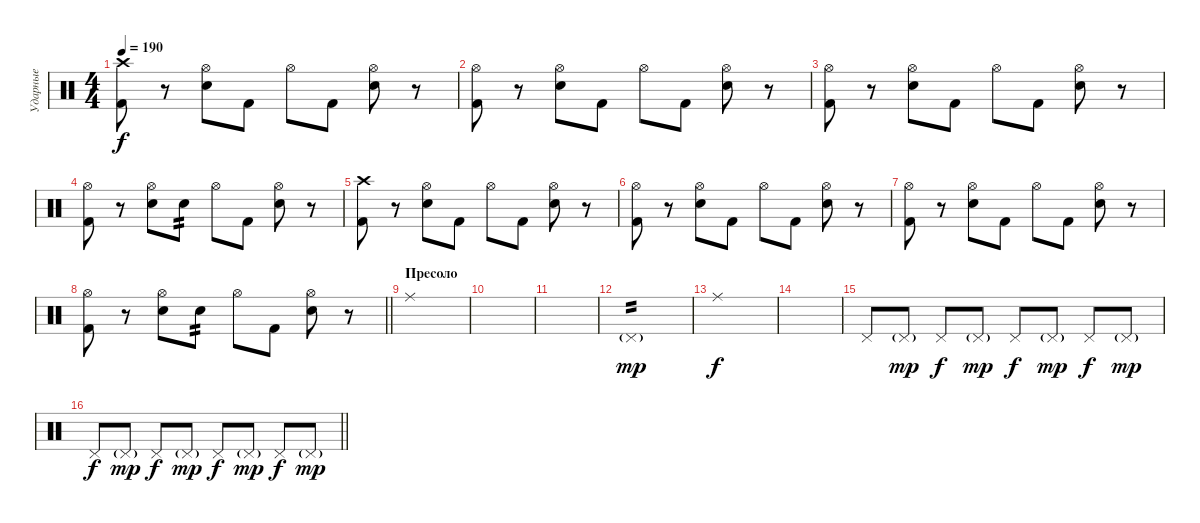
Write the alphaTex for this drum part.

\track ("Ударные" "Ударные") {instrument percussion}
\staff {score}
\articulation defaults
\ts (4 4)
\tempo 190
\clef neutral
\ks c
("Crash high (hit)" "Kick (hit) 2").8{dy f} r.8 ("Hi-Hat (open)" "Electric Snare (hit)").8 "Kick (hit) 2".8 "Hi-Hat (open)".8 "Kick (hit) 2".8 ("Hi-Hat (open)" "Electric Snare (hit)").8 r.8 |
("Hi-Hat (open)" "Kick (hit) 2").8 r.8 ("Hi-Hat (open)" "Electric Snare (hit)").8 "Kick (hit) 2".8 "Hi-Hat (open)".8 "Kick (hit) 2".8 ("Hi-Hat (open)" "Electric Snare (hit)").8 r.8 |
("Hi-Hat (open)" "Kick (hit) 2").8 r.8 ("Hi-Hat (open)" "Electric Snare (hit)").8 "Kick (hit) 2".8 "Hi-Hat (open)".8 "Kick (hit) 2".8 ("Hi-Hat (open)" "Electric Snare (hit)").8 r.8 |
("Hi-Hat (open)" "Kick (hit) 2").8 r.8 ("Hi-Hat (open)" "Electric Snare (hit)").8 "Electric Snare (hit)".8{tp 2} "Hi-Hat (open)".8 "Kick (hit) 2".8 ("Hi-Hat (open)" "Electric Snare (hit)").8 r.8 |
("Crash high (hit)" "Kick (hit) 2").8 r.8 ("Hi-Hat (open)" "Electric Snare (hit)").8 "Kick (hit) 2".8 "Hi-Hat (open)".8 "Kick (hit) 2".8 ("Hi-Hat (open)" "Electric Snare (hit)").8 r.8 |
("Hi-Hat (open)" "Kick (hit) 2").8 r.8 ("Hi-Hat (open)" "Electric Snare (hit)").8 "Kick (hit) 2".8 "Hi-Hat (open)".8 "Kick (hit) 2".8 ("Hi-Hat (open)" "Electric Snare (hit)").8 r.8 |
("Hi-Hat (open)" "Kick (hit) 2").8 r.8 ("Hi-Hat (open)" "Electric Snare (hit)").8 "Kick (hit) 2".8 "Hi-Hat (open)".8 "Kick (hit) 2".8 ("Hi-Hat (open)" "Electric Snare (hit)").8 r.8 |
\barLineRight lightlight
("Hi-Hat (open)" "Kick (hit) 2").8 r.8 ("Hi-Hat (open)" "Electric Snare (hit)").8 "Electric Snare (hit)".8{tp 2} "Hi-Hat (open)".8 "Kick (hit) 2".8 ("Hi-Hat (open)" "Electric Snare (hit)").8 r.8 |
\section ("" "Пресоло")
"Ride (middle)".1 |
|
|
"Pedal Hi-Hat (hit)"{g}.1{tp 2 dy mp} |
"Ride (middle)".1{dy f} |
|
"Pedal Hi-Hat (hit)".8 "Pedal Hi-Hat (hit)"{g}.8{dy mp} "Pedal Hi-Hat (hit)".8{dy f} "Pedal Hi-Hat (hit)"{g}.8{dy mp} "Pedal Hi-Hat (hit)".8{dy f} "Pedal Hi-Hat (hit)"{g}.8{dy mp} "Pedal Hi-Hat (hit)".8{dy f} "Pedal Hi-Hat (hit)"{g}.8{dy mp} |
\barLineRight lightlight "Pedal Hi-Hat (hit)".8{dy f} "Pedal Hi-Hat (hit)"{g}.8{dy mp} "Pedal Hi-Hat (hit)".8{dy f} "Pedal Hi-Hat (hit)"{g}.8{dy mp} "Pedal Hi-Hat (hit)".8{dy f} "Pedal Hi-Hat (hit)"{g}.8{dy mp} "Pedal Hi-Hat (hit)".8{dy f} "Pedal Hi-Hat (hit)"{g}.8{dy mp}
